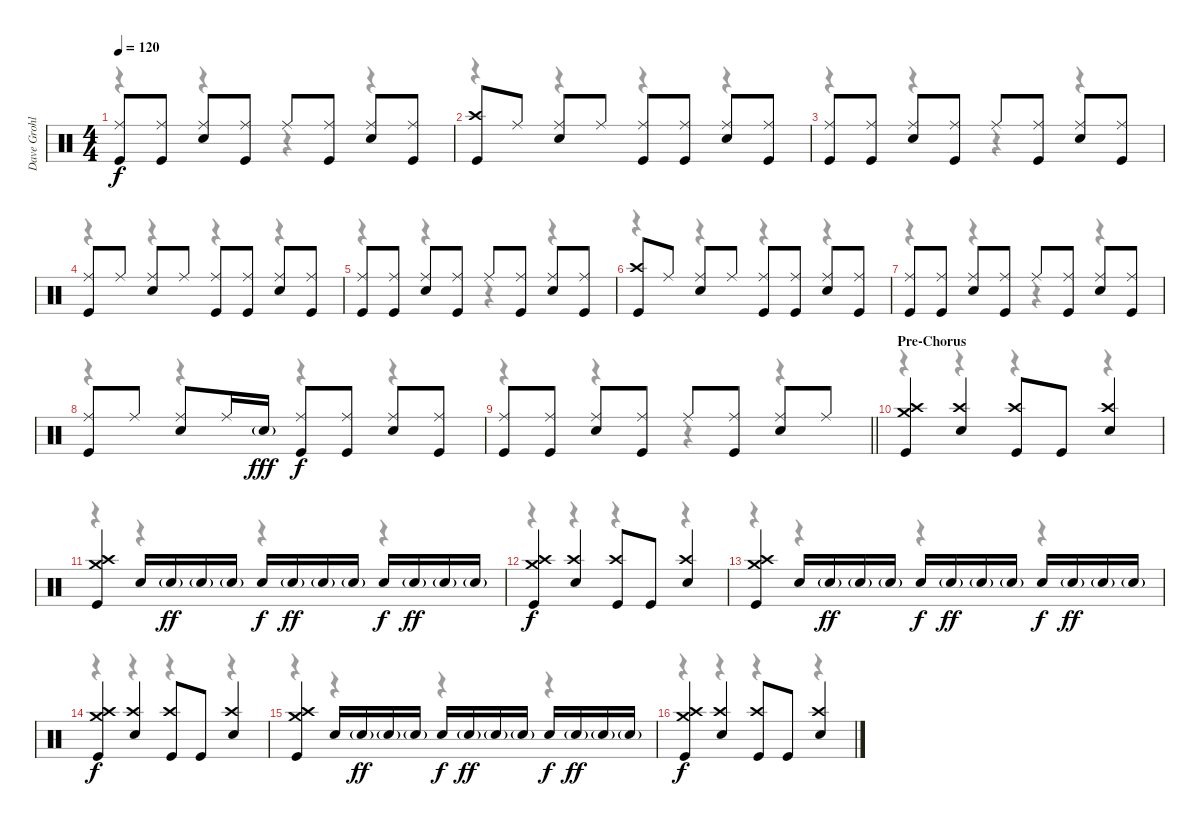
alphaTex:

\track ("Dave Grohl" "Dave Grohl") {instrument percussion}
\staff {score}
\articulation defaults
\voice
\ts (4 4)
\tempo 120
\clef neutral
\ks c
("Ride (middle)" "Kick (hit)").8{dy f} ("Ride (middle)" "Kick (hit)").8 ("Ride (middle)" "Snare (hit) 2").8 ("Ride (middle)" "Kick (hit)").8 "Ride (middle)".8 ("Ride (middle)" "Kick (hit)").8 ("Ride (middle)" "Snare (hit) 2").8 ("Ride (middle)" "Kick (hit)").8 |
("Crash high (hit)" "Kick (hit)").8 "Ride (middle)".8 ("Ride (middle)" "Snare (hit) 2").8 "Ride (middle)".8 ("Ride (middle)" "Kick (hit)").8 ("Ride (middle)" "Kick (hit)").8 ("Ride (middle)" "Snare (hit) 2").8 ("Ride (middle)" "Kick (hit)").8 |
("Ride (middle)" "Kick (hit)").8 ("Ride (middle)" "Kick (hit)").8 ("Ride (middle)" "Snare (hit) 2").8 ("Ride (middle)" "Kick (hit)").8 "Ride (middle)".8 ("Ride (middle)" "Kick (hit)").8 ("Ride (middle)" "Snare (hit) 2").8 ("Ride (middle)" "Kick (hit)").8 |
("Ride (middle)" "Kick (hit)").8 "Ride (middle)".8 ("Ride (middle)" "Snare (hit) 2").8 "Ride (middle)".8 ("Ride (middle)" "Kick (hit)").8 ("Ride (middle)" "Kick (hit)").8 ("Ride (middle)" "Snare (hit) 2").8 ("Ride (middle)" "Kick (hit)").8 |
("Ride (middle)" "Kick (hit)").8 ("Ride (middle)" "Kick (hit)").8 ("Ride (middle)" "Snare (hit) 2").8 ("Ride (middle)" "Kick (hit)").8 "Ride (middle)".8 ("Ride (middle)" "Kick (hit)").8 ("Ride (middle)" "Snare (hit) 2").8 ("Ride (middle)" "Kick (hit)").8 |
("Crash high (hit)" "Kick (hit)").8 "Ride (middle)".8 ("Ride (middle)" "Snare (hit) 2").8 "Ride (middle)".8 ("Ride (middle)" "Kick (hit)").8 ("Ride (middle)" "Kick (hit)").8 ("Ride (middle)" "Snare (hit) 2").8 ("Ride (middle)" "Kick (hit)").8 |
("Ride (middle)" "Kick (hit)").8 ("Ride (middle)" "Kick (hit)").8 ("Ride (middle)" "Snare (hit) 2").8 ("Ride (middle)" "Kick (hit)").8 "Ride (middle)".8 ("Ride (middle)" "Kick (hit)").8 ("Ride (middle)" "Snare (hit) 2").8 ("Ride (middle)" "Kick (hit)").8 |
("Ride (middle)" "Kick (hit)").8 "Ride (middle)".8 ("Ride (middle)" "Snare (hit) 2").8 "Ride (middle)".16 "Snare (hit) 2"{g}.16{dy fff} ("Ride (middle)" "Kick (hit)").8{dy f} ("Ride (middle)" "Kick (hit)").8 ("Ride (middle)" "Snare (hit) 2").8 ("Ride (middle)" "Kick (hit)").8 |
\barLineRight lightlight
("Ride (middle)" "Kick (hit)").8 ("Ride (middle)" "Kick (hit)").8 ("Ride (middle)" "Snare (hit) 2").8 ("Ride (middle)" "Kick (hit)").8 "Ride (middle)".8 ("Ride (middle)" "Kick (hit)").8 ("Ride (middle)" "Snare (hit) 2").8 "Ride (middle)".8 |
\section ("" "Pre-Chorus")
("Crash medium (hit)" "Crash high (hit)" "Kick (hit)").4 ("Crash high (hit)" "Snare (hit) 2").4 ("Crash high (hit)" "Kick (hit)").8 "Kick (hit)".8 ("Crash high (hit)" "Snare (hit) 2").4 |
("Crash medium (hit)" "Crash high (hit)" "Kick (hit)").4 "Snare (hit) 2".16 "Snare (hit) 2"{g}.16{dy ff} "Snare (hit) 2"{g}.16 "Snare (hit) 2"{g}.16 "Snare (hit) 2".16{dy f} "Snare (hit) 2"{g}.16{dy ff} "Snare (hit) 2"{g}.16 "Snare (hit) 2"{g}.16 "Snare (hit) 2".16{dy f} "Snare (hit) 2"{g}.16{dy ff} "Snare (hit) 2"{g}.16 "Snare (hit) 2"{g}.16 |
("Crash medium (hit)" "Crash high (hit)" "Kick (hit)").4{dy f} ("Crash high (hit)" "Snare (hit) 2").4 ("Crash high (hit)" "Kick (hit)").8 "Kick (hit)".8 ("Crash high (hit)" "Snare (hit) 2").4 |
("Crash medium (hit)" "Crash high (hit)" "Kick (hit)").4 "Snare (hit) 2".16 "Snare (hit) 2"{g}.16{dy ff} "Snare (hit) 2"{g}.16 "Snare (hit) 2"{g}.16 "Snare (hit) 2".16{dy f} "Snare (hit) 2"{g}.16{dy ff} "Snare (hit) 2"{g}.16 "Snare (hit) 2"{g}.16 "Snare (hit) 2".16{dy f} "Snare (hit) 2"{g}.16{dy ff} "Snare (hit) 2"{g}.16 "Snare (hit) 2"{g}.16 |
("Crash medium (hit)" "Crash high (hit)" "Kick (hit)").4{dy f} ("Crash high (hit)" "Snare (hit) 2").4 ("Crash high (hit)" "Kick (hit)").8 "Kick (hit)".8 ("Crash high (hit)" "Snare (hit) 2").4 |
("Crash medium (hit)" "Crash high (hit)" "Kick (hit)").4 "Snare (hit) 2".16 "Snare (hit) 2"{g}.16{dy ff} "Snare (hit) 2"{g}.16 "Snare (hit) 2"{g}.16 "Snare (hit) 2".16{dy f} "Snare (hit) 2"{g}.16{dy ff} "Snare (hit) 2"{g}.16 "Snare (hit) 2"{g}.16 "Snare (hit) 2".16{dy f} "Snare (hit) 2"{g}.16{dy ff} "Snare (hit) 2"{g}.16 "Snare (hit) 2"{g}.16 |
("Crash medium (hit)" "Crash high (hit)" "Kick (hit)").4{dy f} ("Crash high (hit)" "Snare (hit) 2").4 ("Crash high (hit)" "Kick (hit)").8 "Kick (hit)".8 ("Crash high (hit)" "Snare (hit) 2").4
\voice
\clef neutral
\ottava regular
\simile none
\ks c
r.4{dy f} r.4 r.4 r.4 |
r.4 r.4 r.4 r.4 |
r.4 r.4 r.4 r.4 |
r.4 r.4 r.4 r.4 |
r.4 r.4 r.4 r.4 |
r.4 r.4 r.4 r.4 |
r.4 r.4 r.4 r.4 |
r.4 r.4 r.4 r.4 |
\barLineRight lightlight
r.4 r.4 r.4 r.4 |
r.4 r.4 r.4 r.4 |
r.4 r.4 r.4 r.4 |
r.4 r.4 r.4 r.4 |
r.4 r.4 r.4 r.4 |
r.4 r.4 r.4 r.4 |
r.4 r.4 r.4 r.4 |
r.4 r.4 r.4 r.4
